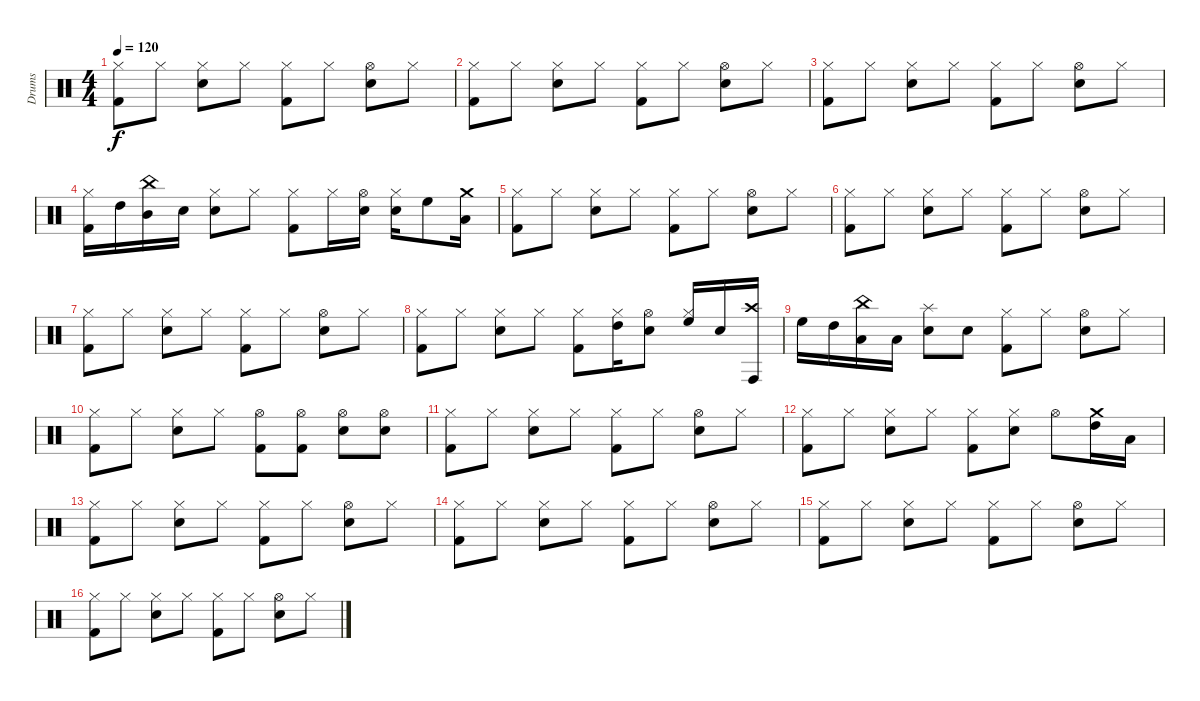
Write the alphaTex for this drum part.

\track ("Drums" "Drums") {instrument percussion}
\staff {score}
\articulation defaults
\ts (4 4)
\tempo 120
\clef neutral
\ks c
("Kick (hit) 2" "Hi-Hat (closed)").8{dy f} "Hi-Hat (closed)".8 ("Snare (hit) 2" "Hi-Hat (closed)").8 "Hi-Hat (closed)".8 ("Kick (hit) 2" "Hi-Hat (closed)").8 "Hi-Hat (closed)".8 ("Snare (hit) 2" "Hi-Hat (open)").8 "Hi-Hat (closed)".8 |
("Kick (hit) 2" "Hi-Hat (closed)").8 "Hi-Hat (closed)".8 ("Snare (hit) 2" "Hi-Hat (closed)").8 "Hi-Hat (closed)".8 ("Kick (hit) 2" "Hi-Hat (closed)").8 "Hi-Hat (closed)".8 ("Snare (hit) 2" "Hi-Hat (open)").8 "Hi-Hat (closed)".8 |
("Kick (hit) 2" "Hi-Hat (closed)").8 "Hi-Hat (closed)".8 ("Snare (hit) 2" "Hi-Hat (closed)").8 "Hi-Hat (closed)".8 ("Kick (hit) 2" "Hi-Hat (closed)").8 "Hi-Hat (closed)".8 ("Snare (hit) 2" "Hi-Hat (open)").8 "Hi-Hat (closed)".8 |
("Kick (hit) 2" "Hi-Hat (closed)").16 "High Tom (hit)".16 ("Mid Tom (hit)" "China (hit)").16 "Electric Snare (hit)".16 ("Snare (hit) 2" "Hi-Hat (closed)").8 "Hi-Hat (closed)".8 ("Kick (hit) 2" "Hi-Hat (closed)").8 "Hi-Hat (closed)".16 ("Snare (hit) 2" "Hi-Hat (open)").16 ("Hi-Hat (closed)" "Snare (hit) 2").16 "High Floor Tom (hit)".8 ("Crash medium (hit)" "Low Tom (hit)").16 |
("Kick (hit) 2" "Hi-Hat (closed)").8 "Hi-Hat (closed)".8 ("Snare (hit) 2" "Hi-Hat (closed)").8 "Hi-Hat (closed)".8 ("Kick (hit) 2" "Hi-Hat (closed)").8 "Hi-Hat (closed)".8 ("Snare (hit) 2" "Hi-Hat (open)").8 "Hi-Hat (closed)".8 |
("Kick (hit) 2" "Hi-Hat (closed)").8 "Hi-Hat (closed)".8 ("Snare (hit) 2" "Hi-Hat (closed)").8 "Hi-Hat (closed)".8 ("Kick (hit) 2" "Hi-Hat (closed)").8 "Hi-Hat (closed)".8 ("Snare (hit) 2" "Hi-Hat (open)").8 "Hi-Hat (closed)".8 |
("Kick (hit) 2" "Hi-Hat (closed)").8 "Hi-Hat (closed)".8 ("Snare (hit) 2" "Hi-Hat (closed)").8 "Hi-Hat (closed)".8 ("Kick (hit) 2" "Hi-Hat (closed)").8 "Hi-Hat (closed)".8 ("Snare (hit) 2" "Hi-Hat (open)").8 "Hi-Hat (closed)".8 |
("Kick (hit) 2" "Hi-Hat (closed)").8 "Hi-Hat (closed)".8 ("Snare (hit) 2" "Hi-Hat (closed)").8 "Hi-Hat (closed)".8 ("Kick (hit) 2" "Hi-Hat (closed)").8 ("Hi-Hat (closed)" "High Tom (hit)").16 ("Snare (hit) 2" "Hi-Hat (open)").8 ("Hi-Hat (closed)" "High Floor Tom (hit)").16 "Snare (hit) 2".16 ("Conga high (hit)" "Crash high (hit)").16 |
"High Floor Tom (hit)".16 "High Tom (hit)".16 ("Low Tom (hit)" "China (hit)").16 "Low Floor Tom (hit)".16 ("Snare (hit) 2" "Splash (hit)").8 "Snare (hit) 2".8 ("Kick (hit) 2" "Hi-Hat (closed)").8 "Hi-Hat (closed)".8 ("Snare (hit) 2" "Hi-Hat (open)").8 "Hi-Hat (closed)".8 |
("Kick (hit) 2" "Hi-Hat (closed)").8 "Hi-Hat (closed)".8 ("Snare (hit) 2" "Hi-Hat (closed)").8 "Hi-Hat (closed)".8 ("Kick (hit) 2" "Hi-Hat (open)").8 ("Kick (hit) 2" "Hi-Hat (open)").8 ("Snare (hit) 2" "Hi-Hat (open)").8 ("Snare (hit) 2" "Hi-Hat (open)").8 |
("Kick (hit) 2" "Hi-Hat (closed)").8 "Hi-Hat (closed)".8 ("Snare (hit) 2" "Hi-Hat (closed)").8 "Hi-Hat (closed)".8 ("Kick (hit) 2" "Hi-Hat (closed)").8 "Hi-Hat (closed)".8 ("Snare (hit) 2" "Hi-Hat (open)").8 "Hi-Hat (closed)".8 |
("Kick (hit) 2" "Hi-Hat (closed)").8 "Hi-Hat (closed)".8 ("Snare (hit) 2" "Hi-Hat (closed)").8 "Hi-Hat (closed)".8 ("Kick (hit) 2" "Hi-Hat (closed)").8 ("Snare (hit) 2" "Hi-Hat (closed)").8 "Hi-Hat (open)".8 ("High Tom (hit)" "Crash medium (hit)").16 "Low Tom (hit)".16 |
("Kick (hit) 2" "Hi-Hat (closed)").8 "Hi-Hat (closed)".8 ("Snare (hit) 2" "Hi-Hat (closed)").8 "Hi-Hat (closed)".8 ("Kick (hit) 2" "Hi-Hat (closed)").8 "Hi-Hat (closed)".8 ("Snare (hit) 2" "Hi-Hat (open)").8 "Hi-Hat (closed)".8 |
("Kick (hit) 2" "Hi-Hat (closed)").8 "Hi-Hat (closed)".8 ("Snare (hit) 2" "Hi-Hat (closed)").8 "Hi-Hat (closed)".8 ("Kick (hit) 2" "Hi-Hat (closed)").8 "Hi-Hat (closed)".8 ("Snare (hit) 2" "Hi-Hat (open)").8 "Hi-Hat (closed)".8 |
("Kick (hit) 2" "Hi-Hat (closed)").8 "Hi-Hat (closed)".8 ("Snare (hit) 2" "Hi-Hat (closed)").8 "Hi-Hat (closed)".8 ("Kick (hit) 2" "Hi-Hat (closed)").8 "Hi-Hat (closed)".8 ("Snare (hit) 2" "Hi-Hat (open)").8 "Hi-Hat (closed)".8 |
("Kick (hit) 2" "Hi-Hat (closed)").8 "Hi-Hat (closed)".8 ("Snare (hit) 2" "Hi-Hat (closed)").8 "Hi-Hat (closed)".8 ("Kick (hit) 2" "Hi-Hat (closed)").8 "Hi-Hat (closed)".8 ("Snare (hit) 2" "Hi-Hat (open)").8 "Hi-Hat (closed)".8
